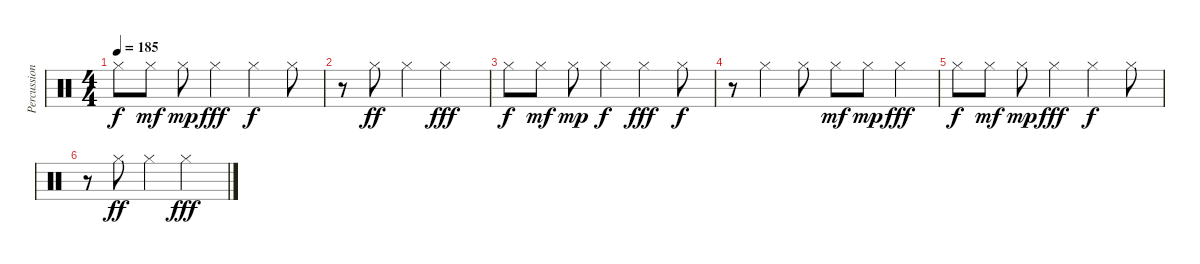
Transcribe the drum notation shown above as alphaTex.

\track ("Percussion" "Percussion") {solo instrument percussion}
\staff {score}
\articulation defaults
\ts (4 4)
\tempo 185
\clef neutral
\ks c "Hi-Hat (closed)".8{dy f} "Hi-Hat (closed)".8{dy mf} "Hi-Hat (closed)".8{dy mp} "Hi-Hat (closed)".4{dy fff} "Hi-Hat (closed)".4{dy f} "Hi-Hat (closed)".8
|
r.8 "Hi-Hat (closed)".8{dy ff} "Hi-Hat (closed)".4 "Hi-Hat (closed)".2{dy fff} |
"Hi-Hat (closed)".8{dy f} "Hi-Hat (closed)".8{dy mf} "Hi-Hat (closed)".8{dy mp} "Hi-Hat (closed)".4{dy f} "Hi-Hat (closed)".4{dy fff} "Hi-Hat (closed)".8{dy f} |
r.8 "Hi-Hat (closed)".4 "Hi-Hat (closed)".8 "Hi-Hat (closed)".8{dy mf} "Hi-Hat (closed)".8{dy mp} "Hi-Hat (closed)".4{dy fff} |
"Hi-Hat (closed)".8{dy f} "Hi-Hat (closed)".8{dy mf} "Hi-Hat (closed)".8{dy mp} "Hi-Hat (closed)".4{dy fff} "Hi-Hat (closed)".4{dy f} "Hi-Hat (closed)".8 |
r.8 "Hi-Hat (closed)".8{dy ff} "Hi-Hat (closed)".4 "Hi-Hat (closed)".2{dy fff}
